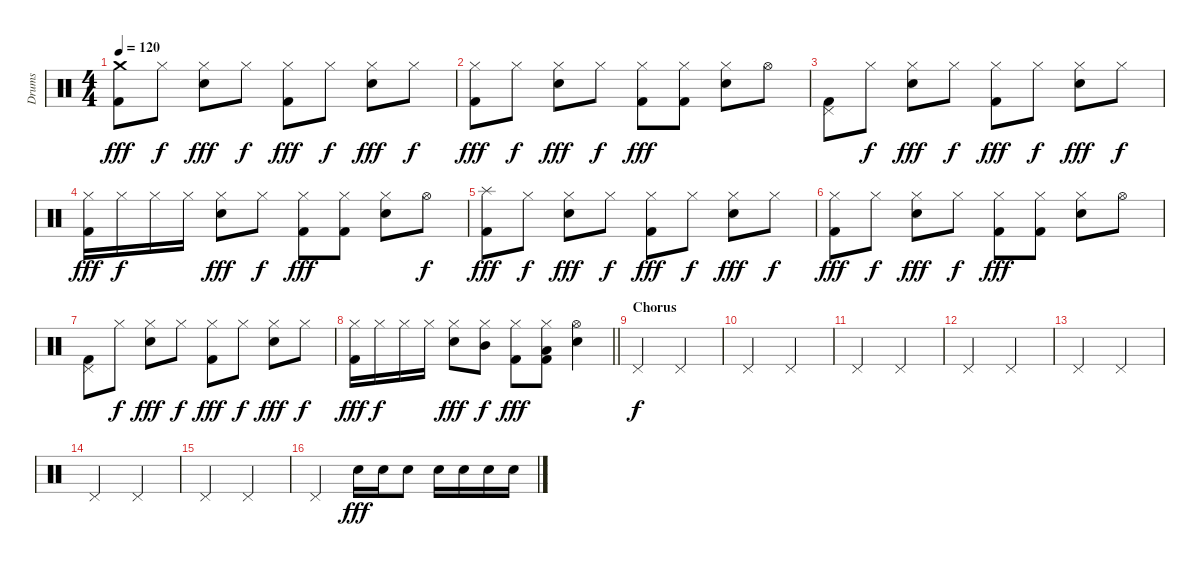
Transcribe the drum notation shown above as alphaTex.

\track ("Drums" "Drums") {instrument percussion}
\staff {score}
\articulation defaults
\ts (4 4)
\tempo 120
\clef neutral
\ks c
("Crash medium (hit)" "Kick (hit) 2").8{dy fff} "Hi-Hat (closed)".8{dy f} ("Hi-Hat (closed)" "Snare (hit) 2").8{dy fff} "Hi-Hat (closed)".8{dy f} ("Hi-Hat (closed)" "Kick (hit) 2").8{dy fff} "Hi-Hat (closed)".8{dy f} ("Hi-Hat (closed)" "Snare (hit) 2").8{dy fff} "Hi-Hat (closed)".8{dy f} |
("Hi-Hat (closed)" "Kick (hit) 2").8{dy fff} "Hi-Hat (closed)".8{dy f} ("Hi-Hat (closed)" "Snare (hit) 2").8{dy fff} "Hi-Hat (closed)".8{dy f} ("Hi-Hat (closed)" "Kick (hit) 2").8{dy fff} ("Hi-Hat (closed)" "Kick (hit) 2").8 ("Hi-Hat (closed)" "Snare (hit) 2").8 "Hi-Hat (open)".8 |
("Pedal Hi-Hat (hit)" "Kick (hit) 2").8 "Hi-Hat (closed)".8{dy f} ("Hi-Hat (closed)" "Snare (hit) 2").8{dy fff} "Hi-Hat (closed)".8{dy f} ("Hi-Hat (closed)" "Kick (hit) 2").8{dy fff} "Hi-Hat (closed)".8{dy f} ("Hi-Hat (closed)" "Snare (hit) 2").8{dy fff} "Hi-Hat (closed)".8{dy f} |
("Hi-Hat (closed)" "Kick (hit) 2").16{dy fff} "Hi-Hat (closed)".16{dy f} "Hi-Hat (closed)".16 "Hi-Hat (closed)".16 ("Hi-Hat (closed)" "Snare (hit) 2").8{dy fff} "Hi-Hat (closed)".8{dy f} ("Hi-Hat (closed)" "Kick (hit) 2").8{dy fff} ("Hi-Hat (closed)" "Kick (hit) 2").8 ("Hi-Hat (closed)" "Snare (hit) 2").8 "Hi-Hat (open)".8{dy f} |
("Splash (hit)" "Kick (hit) 2").8{dy fff} "Hi-Hat (closed)".8{dy f} ("Hi-Hat (closed)" "Snare (hit) 2").8{dy fff} "Hi-Hat (closed)".8{dy f} ("Hi-Hat (closed)" "Kick (hit) 2").8{dy fff} "Hi-Hat (closed)".8{dy f} ("Hi-Hat (closed)" "Snare (hit) 2").8{dy fff} "Hi-Hat (closed)".8{dy f} |
("Hi-Hat (closed)" "Kick (hit) 2").8{dy fff} "Hi-Hat (closed)".8{dy f} ("Hi-Hat (closed)" "Snare (hit) 2").8{dy fff} "Hi-Hat (closed)".8{dy f} ("Hi-Hat (closed)" "Kick (hit) 2").8{dy fff} ("Hi-Hat (closed)" "Kick (hit) 2").8 ("Hi-Hat (closed)" "Snare (hit) 2").8 "Hi-Hat (open)".8 |
("Pedal Hi-Hat (hit)" "Kick (hit) 2").8 "Hi-Hat (closed)".8{dy f} ("Hi-Hat (closed)" "Snare (hit) 2").8{dy fff} "Hi-Hat (closed)".8{dy f} ("Hi-Hat (closed)" "Kick (hit) 2").8{dy fff} "Hi-Hat (closed)".8{dy f} ("Hi-Hat (closed)" "Snare (hit) 2").8{dy fff} "Hi-Hat (closed)".8{dy f} |
\barLineRight lightlight
("Hi-Hat (closed)" "Kick (hit) 2").16{dy fff} "Hi-Hat (closed)".16{dy f} "Hi-Hat (closed)".16 "Hi-Hat (closed)".16 ("Hi-Hat (closed)" "Snare (hit) 2").8{dy fff} ("Hi-Hat (closed)" "Mid Tom (hit)").8{dy f} ("Hi-Hat (closed)" "Kick (hit) 2").8{dy fff} ("Hi-Hat (closed)" "Low Tom (hit)" "Kick (hit) 2").8 ("Hi-Hat (open)" "Snare (hit) 2").4 |
\section ("" "Chorus")
"Pedal Hi-Hat (hit)".2{dy f} "Pedal Hi-Hat (hit)".2 |
"Pedal Hi-Hat (hit)".2 "Pedal Hi-Hat (hit)".2 |
"Pedal Hi-Hat (hit)".2 "Pedal Hi-Hat (hit)".2 |
"Pedal Hi-Hat (hit)".2 "Pedal Hi-Hat (hit)".2 |
"Pedal Hi-Hat (hit)".2 "Pedal Hi-Hat (hit)".2 |
"Pedal Hi-Hat (hit)".2 "Pedal Hi-Hat (hit)".2 |
"Pedal Hi-Hat (hit)".2 "Pedal Hi-Hat (hit)".2 |
"Pedal Hi-Hat (hit)".2 "Snare (hit) 2".16{dy fff} "Snare (hit) 2".16 "Snare (hit) 2".8 "Snare (hit) 2".16 "Snare (hit) 2".16 "Snare (hit) 2".16 "Snare (hit) 2".16
